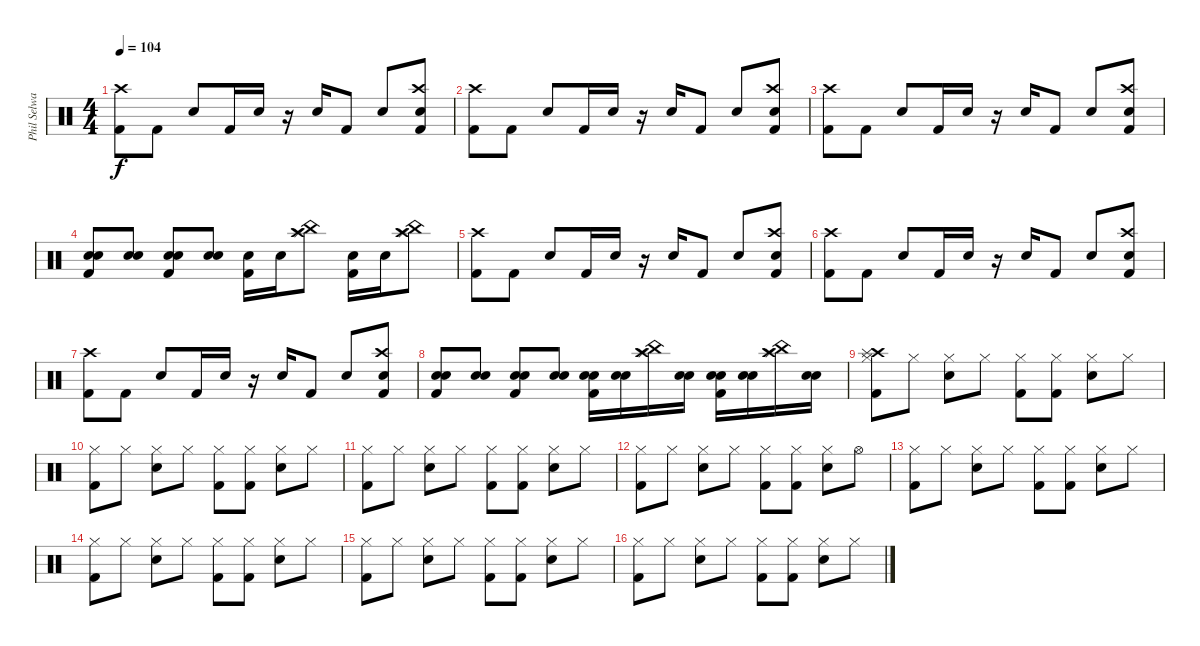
\track ("Phil Selway" "Phil Selwa") {instrument percussion}
\staff {score}
\articulation defaults
\ts (4 4)
\tempo 104
\clef neutral
\ks c
("Kick (hit) 2" "Crash high (hit)").8{dy f} "Kick (hit) 2".8 "Electric Snare (hit)".8 "Kick (hit) 2".16 "Electric Snare (hit)".16 r.16 "Electric Snare (hit)".16 "Kick (hit) 2".8 "Electric Snare (hit)".8 ("Kick (hit) 2" "Crash high (hit)" "Electric Snare (hit)").8 |
("Kick (hit) 2" "Crash high (hit)").8 "Kick (hit) 2".8 "Electric Snare (hit)".8 "Kick (hit) 2".16 "Electric Snare (hit)".16 r.16 "Electric Snare (hit)".16 "Kick (hit) 2".8 "Electric Snare (hit)".8 ("Kick (hit) 2" "Crash high (hit)" "Electric Snare (hit)").8 |
("Kick (hit) 2" "Crash high (hit)").8 "Kick (hit) 2".8 "Electric Snare (hit)".8 "Kick (hit) 2".16 "Electric Snare (hit)".16 r.16 "Electric Snare (hit)".16 "Kick (hit) 2".8 "Electric Snare (hit)".8 ("Kick (hit) 2" "Crash high (hit)" "Electric Snare (hit)").8 |
("Electric Snare (hit)" "Snare (hit) 2" "Kick (hit) 2").8 ("Electric Snare (hit)" "Snare (hit) 2").8 ("Electric Snare (hit)" "Snare (hit) 2" "Kick (hit) 2").8 ("Electric Snare (hit)" "Snare (hit) 2").8 ("Electric Snare (hit)" "Kick (hit) 2").16 "Electric Snare (hit)".16 ("Splash (hit)" "China (hit)" "Crash high (hit)").8 ("Electric Snare (hit)" "Kick (hit) 2").16 "Electric Snare (hit)".16 ("Splash (hit)" "China (hit)" "Crash high (hit)").8 |
("Kick (hit) 2" "Crash high (hit)").8 "Kick (hit) 2".8 "Electric Snare (hit)".8 "Kick (hit) 2".16 "Electric Snare (hit)".16 r.16 "Electric Snare (hit)".16 "Kick (hit) 2".8 "Electric Snare (hit)".8 ("Kick (hit) 2" "Crash high (hit)" "Electric Snare (hit)").8 |
("Kick (hit) 2" "Crash high (hit)").8 "Kick (hit) 2".8 "Electric Snare (hit)".8 "Kick (hit) 2".16 "Electric Snare (hit)".16 r.16 "Electric Snare (hit)".16 "Kick (hit) 2".8 "Electric Snare (hit)".8 ("Kick (hit) 2" "Crash high (hit)" "Electric Snare (hit)").8 |
("Kick (hit) 2" "Crash high (hit)").8 "Kick (hit) 2".8 "Electric Snare (hit)".8 "Kick (hit) 2".16 "Electric Snare (hit)".16 r.16 "Electric Snare (hit)".16 "Kick (hit) 2".8 "Electric Snare (hit)".8 ("Kick (hit) 2" "Crash high (hit)" "Electric Snare (hit)").8 |
("Electric Snare (hit)" "Snare (hit) 2" "Kick (hit) 2").8 ("Electric Snare (hit)" "Snare (hit) 2").8 ("Electric Snare (hit)" "Snare (hit) 2" "Kick (hit) 2").8 ("Electric Snare (hit)" "Snare (hit) 2").8 ("Electric Snare (hit)" "Kick (hit) 2" "Snare (hit) 2").16 ("Electric Snare (hit)" "Snare (hit) 2").16 ("Splash (hit)" "China (hit)" "Crash high (hit)").16 ("Electric Snare (hit)" "Snare (hit) 2").16 ("Electric Snare (hit)" "Kick (hit) 2" "Snare (hit) 2").16 ("Electric Snare (hit)" "Snare (hit) 2").16 ("Splash (hit)" "China (hit)" "Crash high (hit)").16 ("Electric Snare (hit)" "Snare (hit) 2").16 |
("Kick (hit) 2" "Crash high (hit)" "Splash (hit)" "Hi-Hat (closed)").8 "Hi-Hat (closed)".8 ("Electric Snare (hit)" "Hi-Hat (closed)").8 "Hi-Hat (closed)".8 ("Kick (hit) 2" "Hi-Hat (closed)").8 ("Kick (hit) 2" "Hi-Hat (closed)").8 ("Electric Snare (hit)" "Hi-Hat (closed)").8 "Hi-Hat (closed)".8 |
("Kick (hit) 2" "Hi-Hat (closed)").8 "Hi-Hat (closed)".8 ("Electric Snare (hit)" "Hi-Hat (closed)").8 "Hi-Hat (closed)".8 ("Kick (hit) 2" "Hi-Hat (closed)").8 ("Kick (hit) 2" "Hi-Hat (closed)").8 ("Electric Snare (hit)" "Hi-Hat (closed)").8 "Hi-Hat (closed)".8 |
("Kick (hit) 2" "Hi-Hat (closed)").8 "Hi-Hat (closed)".8 ("Electric Snare (hit)" "Hi-Hat (closed)").8 "Hi-Hat (closed)".8 ("Kick (hit) 2" "Hi-Hat (closed)").8 ("Kick (hit) 2" "Hi-Hat (closed)").8 ("Electric Snare (hit)" "Hi-Hat (closed)").8 "Hi-Hat (closed)".8 |
("Kick (hit) 2" "Hi-Hat (closed)").8 "Hi-Hat (closed)".8 ("Electric Snare (hit)" "Hi-Hat (closed)").8 "Hi-Hat (closed)".8 ("Kick (hit) 2" "Hi-Hat (closed)").8 ("Kick (hit) 2" "Hi-Hat (closed)").8 ("Electric Snare (hit)" "Hi-Hat (closed)").8 "Hi-Hat (open)".8 |
("Kick (hit) 2" "Hi-Hat (closed)").8 "Hi-Hat (closed)".8 ("Electric Snare (hit)" "Hi-Hat (closed)").8 "Hi-Hat (closed)".8 ("Kick (hit) 2" "Hi-Hat (closed)").8 ("Kick (hit) 2" "Hi-Hat (closed)").8 ("Electric Snare (hit)" "Hi-Hat (closed)").8 "Hi-Hat (closed)".8 |
("Kick (hit) 2" "Hi-Hat (closed)").8 "Hi-Hat (closed)".8 ("Electric Snare (hit)" "Hi-Hat (closed)").8 "Hi-Hat (closed)".8 ("Kick (hit) 2" "Hi-Hat (closed)").8 ("Kick (hit) 2" "Hi-Hat (closed)").8 ("Electric Snare (hit)" "Hi-Hat (closed)").8 "Hi-Hat (closed)".8 |
("Kick (hit) 2" "Hi-Hat (closed)").8 "Hi-Hat (closed)".8 ("Electric Snare (hit)" "Hi-Hat (closed)").8 "Hi-Hat (closed)".8 ("Kick (hit) 2" "Hi-Hat (closed)").8 ("Kick (hit) 2" "Hi-Hat (closed)").8 ("Electric Snare (hit)" "Hi-Hat (closed)").8 "Hi-Hat (closed)".8 |
("Kick (hit) 2" "Hi-Hat (closed)").8 "Hi-Hat (closed)".8 ("Electric Snare (hit)" "Hi-Hat (closed)").8 "Hi-Hat (closed)".8 ("Kick (hit) 2" "Hi-Hat (closed)").8 ("Kick (hit) 2" "Hi-Hat (closed)").8 ("Electric Snare (hit)" "Hi-Hat (closed)").8 "Hi-Hat (closed)".8
